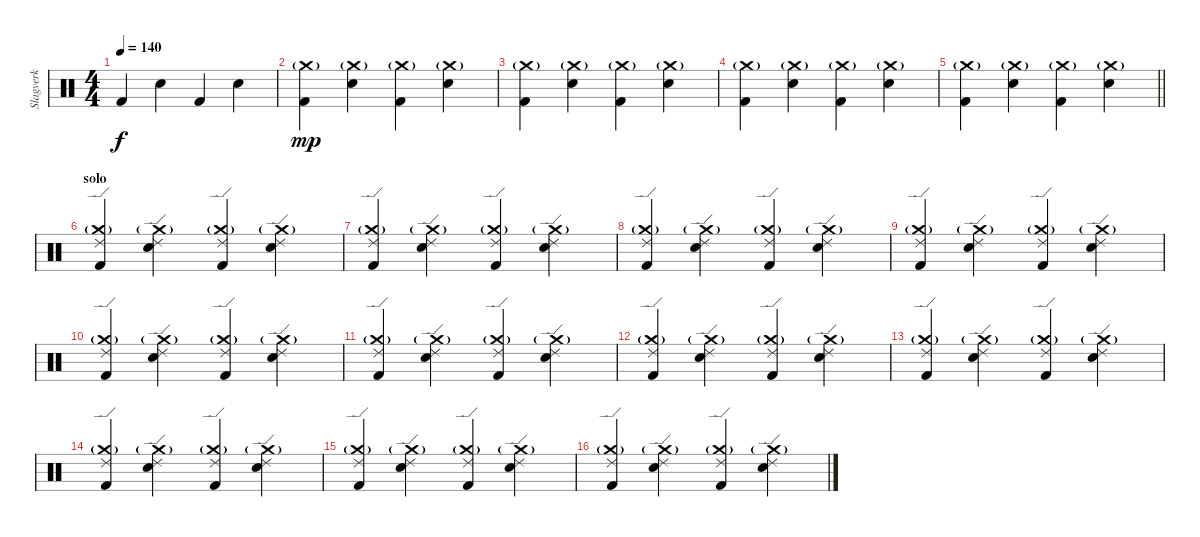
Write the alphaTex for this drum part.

\track ("Slagverk" "Slagverk") {instrument percussion}
\staff {score}
\articulation defaults
\ts (4 4)
\tempo 140
\clef neutral
\ks c "Kick (hit) 2".4{dy f} "Snare (hit) 2".4 "Kick (hit) 2".4 "Snare (hit) 2".4
|
("Kick (hit) 2" "Crash medium (hit)"{g}).4{dy mp} ("Snare (hit) 2" "Crash medium (hit)"{g}).4 ("Kick (hit) 2" "Crash medium (hit)"{g}).4 ("Snare (hit) 2" "Crash medium (hit)"{g}).4 |
("Kick (hit) 2" "Crash medium (hit)"{g}).4 ("Snare (hit) 2" "Crash medium (hit)"{g}).4 ("Kick (hit) 2" "Crash medium (hit)"{g}).4 ("Snare (hit) 2" "Crash medium (hit)"{g}).4 |
("Kick (hit) 2" "Crash medium (hit)"{g}).4 ("Snare (hit) 2" "Crash medium (hit)"{g}).4 ("Kick (hit) 2" "Crash medium (hit)"{g}).4 ("Snare (hit) 2" "Crash medium (hit)"{g}).4 |
\barLineRight lightlight
("Kick (hit) 2" "Crash medium (hit)"{g}).4 ("Snare (hit) 2" "Crash medium (hit)"{g}).4 ("Kick (hit) 2" "Crash medium (hit)"{g}).4 ("Snare (hit) 2" "Crash medium (hit)"{g}).4 |
\section ("" "solo")
("Kick (hit) 2" "Crash medium (hit)"{g} "Ride (edge) 2").4 ("Snare (hit) 2" "Crash medium (hit)"{g} "Ride (edge) 2").4 ("Kick (hit) 2" "Crash medium (hit)"{g} "Ride (edge) 2").4 ("Snare (hit) 2" "Crash medium (hit)"{g} "Ride (edge) 2").4 |
("Kick (hit) 2" "Crash medium (hit)"{g} "Ride (edge) 2").4 ("Snare (hit) 2" "Crash medium (hit)"{g} "Ride (edge) 2").4 ("Kick (hit) 2" "Crash medium (hit)"{g} "Ride (edge) 2").4 ("Snare (hit) 2" "Crash medium (hit)"{g} "Ride (edge) 2").4 |
("Kick (hit) 2" "Crash medium (hit)"{g} "Ride (edge) 2").4 ("Snare (hit) 2" "Crash medium (hit)"{g} "Ride (edge) 2").4 ("Kick (hit) 2" "Crash medium (hit)"{g} "Ride (edge) 2").4 ("Snare (hit) 2" "Crash medium (hit)"{g} "Ride (edge) 2").4 |
("Kick (hit) 2" "Crash medium (hit)"{g} "Ride (edge) 2").4 ("Snare (hit) 2" "Crash medium (hit)"{g} "Ride (edge) 2").4 ("Kick (hit) 2" "Crash medium (hit)"{g} "Ride (edge) 2").4 ("Snare (hit) 2" "Crash medium (hit)"{g} "Ride (edge) 2").4 |
("Kick (hit) 2" "Crash medium (hit)"{g} "Ride (edge) 2").4 ("Snare (hit) 2" "Crash medium (hit)"{g} "Ride (edge) 2").4 ("Kick (hit) 2" "Crash medium (hit)"{g} "Ride (edge) 2").4 ("Snare (hit) 2" "Crash medium (hit)"{g} "Ride (edge) 2").4 |
("Kick (hit) 2" "Crash medium (hit)"{g} "Ride (edge) 2").4 ("Snare (hit) 2" "Crash medium (hit)"{g} "Ride (edge) 2").4 ("Kick (hit) 2" "Crash medium (hit)"{g} "Ride (edge) 2").4 ("Snare (hit) 2" "Crash medium (hit)"{g} "Ride (edge) 2").4 |
("Kick (hit) 2" "Crash medium (hit)"{g} "Ride (edge) 2").4 ("Snare (hit) 2" "Crash medium (hit)"{g} "Ride (edge) 2").4 ("Kick (hit) 2" "Crash medium (hit)"{g} "Ride (edge) 2").4 ("Snare (hit) 2" "Crash medium (hit)"{g} "Ride (edge) 2").4 |
("Kick (hit) 2" "Crash medium (hit)"{g} "Ride (edge) 2").4 ("Snare (hit) 2" "Crash medium (hit)"{g} "Ride (edge) 2").4 ("Kick (hit) 2" "Crash medium (hit)"{g} "Ride (edge) 2").4 ("Snare (hit) 2" "Crash medium (hit)"{g} "Ride (edge) 2").4 |
("Kick (hit) 2" "Crash medium (hit)"{g} "Ride (edge) 2").4 ("Snare (hit) 2" "Crash medium (hit)"{g} "Ride (edge) 2").4 ("Kick (hit) 2" "Crash medium (hit)"{g} "Ride (edge) 2").4 ("Snare (hit) 2" "Crash medium (hit)"{g} "Ride (edge) 2").4 |
("Kick (hit) 2" "Crash medium (hit)"{g} "Ride (edge) 2").4 ("Snare (hit) 2" "Crash medium (hit)"{g} "Ride (edge) 2").4 ("Kick (hit) 2" "Crash medium (hit)"{g} "Ride (edge) 2").4 ("Snare (hit) 2" "Crash medium (hit)"{g} "Ride (edge) 2").4 |
("Kick (hit) 2" "Crash medium (hit)"{g} "Ride (edge) 2").4 ("Snare (hit) 2" "Crash medium (hit)"{g} "Ride (edge) 2").4 ("Kick (hit) 2" "Crash medium (hit)"{g} "Ride (edge) 2").4 ("Snare (hit) 2" "Crash medium (hit)"{g} "Ride (edge) 2").4
